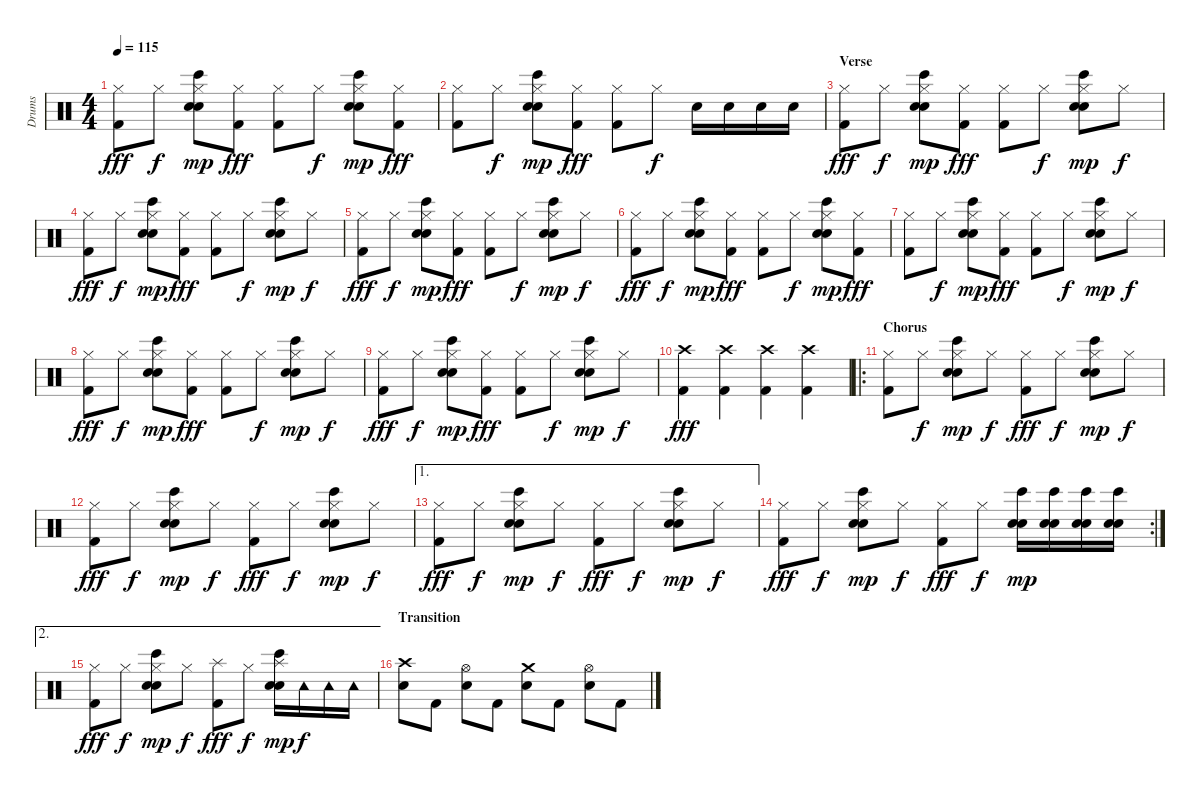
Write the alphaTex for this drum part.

\track ("Drums" "Drums") {instrument percussion}
\staff {score}
\articulation defaults
\ts (4 4)
\tempo 115
\clef neutral
\ks c
("Hi-Hat (closed)" "Kick (hit) 2").8{dy fff} "Hi-Hat (closed)".8{dy f} ("Hi-Hat (closed)" "Bongo High (hit)" "Electric Snare (hit)" "Hand Clap (hit)").8{dy mp} ("Hi-Hat (closed)" "Kick (hit) 2").8{dy fff} ("Hi-Hat (closed)" "Kick (hit) 2").8 "Hi-Hat (closed)".8{dy f} ("Hi-Hat (closed)" "Bongo High (hit)" "Electric Snare (hit)" "Hand Clap (hit)").8{dy mp} ("Hi-Hat (closed)" "Kick (hit) 2").8{dy fff} |
("Hi-Hat (closed)" "Kick (hit) 2").8 "Hi-Hat (closed)".8{dy f} ("Hi-Hat (closed)" "Bongo High (hit)" "Electric Snare (hit)" "Hand Clap (hit)").8{dy mp} ("Hi-Hat (closed)" "Kick (hit) 2").8{dy fff} ("Hi-Hat (closed)" "Kick (hit) 2").8 "Hi-Hat (closed)".8{dy f} "Electric Snare (hit)".16 "Electric Snare (hit)".16 "Electric Snare (hit)".16 "Electric Snare (hit)".16 |
\section ("" "Verse")
("Hi-Hat (closed)" "Kick (hit) 2").8{dy fff} "Hi-Hat (closed)".8{dy f} ("Hi-Hat (closed)" "Bongo High (hit)" "Electric Snare (hit)" "Hand Clap (hit)").8{dy mp} ("Hi-Hat (closed)" "Kick (hit) 2").8{dy fff} ("Hi-Hat (closed)" "Kick (hit) 2").8 "Hi-Hat (closed)".8{dy f} ("Hi-Hat (closed)" "Bongo High (hit)" "Electric Snare (hit)" "Hand Clap (hit)").8{dy mp} "Hi-Hat (closed)".8{dy f} |
("Hi-Hat (closed)" "Kick (hit) 2").8{dy fff} "Hi-Hat (closed)".8{dy f} ("Hi-Hat (closed)" "Bongo High (hit)" "Electric Snare (hit)" "Hand Clap (hit)").8{dy mp} ("Hi-Hat (closed)" "Kick (hit) 2").8{dy fff} ("Hi-Hat (closed)" "Kick (hit) 2").8 "Hi-Hat (closed)".8{dy f} ("Hi-Hat (closed)" "Bongo High (hit)" "Electric Snare (hit)" "Hand Clap (hit)").8{dy mp} "Hi-Hat (closed)".8{dy f} |
("Hi-Hat (closed)" "Kick (hit) 2").8{dy fff} "Hi-Hat (closed)".8{dy f} ("Hi-Hat (closed)" "Bongo High (hit)" "Electric Snare (hit)" "Hand Clap (hit)").8{dy mp} ("Hi-Hat (closed)" "Kick (hit) 2").8{dy fff} ("Hi-Hat (closed)" "Kick (hit) 2").8 "Hi-Hat (closed)".8{dy f} ("Hi-Hat (closed)" "Bongo High (hit)" "Electric Snare (hit)" "Hand Clap (hit)").8{dy mp} "Hi-Hat (closed)".8{dy f} |
("Hi-Hat (closed)" "Kick (hit) 2").8{dy fff} "Hi-Hat (closed)".8{dy f} ("Hi-Hat (closed)" "Bongo High (hit)" "Electric Snare (hit)" "Hand Clap (hit)").8{dy mp} ("Hi-Hat (closed)" "Kick (hit) 2").8{dy fff} ("Hi-Hat (closed)" "Kick (hit) 2").8 "Hi-Hat (closed)".8{dy f} ("Hi-Hat (closed)" "Bongo High (hit)" "Electric Snare (hit)" "Hand Clap (hit)").8{dy mp} ("Hi-Hat (closed)" "Kick (hit) 2").8{dy fff} |
("Hi-Hat (closed)" "Kick (hit) 2").8 "Hi-Hat (closed)".8{dy f} ("Hi-Hat (closed)" "Bongo High (hit)" "Electric Snare (hit)" "Hand Clap (hit)").8{dy mp} ("Hi-Hat (closed)" "Kick (hit) 2").8{dy fff} ("Hi-Hat (closed)" "Kick (hit) 2").8 "Hi-Hat (closed)".8{dy f} ("Hi-Hat (closed)" "Bongo High (hit)" "Electric Snare (hit)" "Hand Clap (hit)").8{dy mp} "Hi-Hat (closed)".8{dy f} |
("Hi-Hat (closed)" "Kick (hit) 2").8{dy fff} "Hi-Hat (closed)".8{dy f} ("Hi-Hat (closed)" "Bongo High (hit)" "Electric Snare (hit)" "Hand Clap (hit)").8{dy mp} ("Hi-Hat (closed)" "Kick (hit) 2").8{dy fff} ("Hi-Hat (closed)" "Kick (hit) 2").8 "Hi-Hat (closed)".8{dy f} ("Hi-Hat (closed)" "Bongo High (hit)" "Electric Snare (hit)" "Hand Clap (hit)").8{dy mp} "Hi-Hat (closed)".8{dy f} |
("Hi-Hat (closed)" "Kick (hit) 2").8{dy fff} "Hi-Hat (closed)".8{dy f} ("Hi-Hat (closed)" "Bongo High (hit)" "Electric Snare (hit)" "Hand Clap (hit)").8{dy mp} ("Hi-Hat (closed)" "Kick (hit) 2").8{dy fff} ("Hi-Hat (closed)" "Kick (hit) 2").8 "Hi-Hat (closed)".8{dy f} ("Hi-Hat (closed)" "Bongo High (hit)" "Electric Snare (hit)" "Hand Clap (hit)").8{dy mp} "Hi-Hat (closed)".8{dy f} |
("Crash high (hit)" "Kick (hit) 2").4{dy fff} ("Crash high (hit)" "Kick (hit) 2").4 ("Crash high (hit)" "Kick (hit) 2").4 ("Crash high (hit)" "Kick (hit) 2").4 |
\ro
\section ("" "Chorus")
("Hi-Hat (closed)" "Kick (hit) 2").8 "Hi-Hat (closed)".8{dy f} ("Hi-Hat (closed)" "Bongo High (hit)" "Electric Snare (hit)" "Hand Clap (hit)").8{dy mp} "Hi-Hat (closed)".8{dy f} ("Hi-Hat (closed)" "Kick (hit) 2").8{dy fff} "Hi-Hat (closed)".8{dy f} ("Hi-Hat (closed)" "Bongo High (hit)" "Electric Snare (hit)" "Hand Clap (hit)").8{dy mp} "Hi-Hat (closed)".8{dy f} |
("Hi-Hat (closed)" "Kick (hit) 2").8{dy fff} "Hi-Hat (closed)".8{dy f} ("Hi-Hat (closed)" "Bongo High (hit)" "Electric Snare (hit)" "Hand Clap (hit)").8{dy mp} "Hi-Hat (closed)".8{dy f} ("Hi-Hat (closed)" "Kick (hit) 2").8{dy fff} "Hi-Hat (closed)".8{dy f} ("Hi-Hat (closed)" "Bongo High (hit)" "Electric Snare (hit)" "Hand Clap (hit)").8{dy mp} "Hi-Hat (closed)".8{dy f} |
\ae 1
("Hi-Hat (closed)" "Kick (hit) 2").8{dy fff} "Hi-Hat (closed)".8{dy f} ("Hi-Hat (closed)" "Bongo High (hit)" "Electric Snare (hit)" "Hand Clap (hit)").8{dy mp} "Hi-Hat (closed)".8{dy f} ("Hi-Hat (closed)" "Kick (hit) 2").8{dy fff} "Hi-Hat (closed)".8{dy f} ("Hi-Hat (closed)" "Bongo High (hit)" "Electric Snare (hit)" "Hand Clap (hit)").8{dy mp} "Hi-Hat (closed)".8{dy f} |
\rc 2
("Hi-Hat (closed)" "Kick (hit) 2").8{dy fff} "Hi-Hat (closed)".8{dy f} ("Hi-Hat (closed)" "Bongo High (hit)" "Electric Snare (hit)" "Hand Clap (hit)").8{dy mp} "Hi-Hat (closed)".8{dy f} ("Hi-Hat (closed)" "Kick (hit) 2").8{dy fff} "Hi-Hat (closed)".8{dy f} ("Bongo High (hit)" "Electric Snare (hit)" "Hand Clap (hit)").16{dy mp} ("Bongo High (hit)" "Electric Snare (hit)" "Hand Clap (hit)").16 ("Bongo High (hit)" "Electric Snare (hit)" "Hand Clap (hit)").16 ("Bongo High (hit)" "Electric Snare (hit)" "Hand Clap (hit)").16 |
\ae 2
("Hi-Hat (closed)" "Kick (hit) 2").8{dy fff} "Hi-Hat (closed)".8{dy f} ("Hi-Hat (closed)" "Bongo High (hit)" "Electric Snare (hit)" "Hand Clap (hit)").8{dy mp} "Hi-Hat (closed)".8{dy f} ("Splash (hit)" "Kick (hit) 2").8{dy fff} "Hi-Hat (closed)".8{dy f} ("Splash (hit)" "Bongo High (hit)" "Electric Snare (hit)" "Hand Clap (hit)").16{dy mp} "Tambourine (hit)".16{dy f} "Tambourine (hit)".16 "Tambourine (hit)".16 |
\section ("" "Transition")
("Crash high (hit)" "Electric Snare (hit)").8 "Kick (hit) 2".8 ("Hi-Hat (open)" "Electric Snare (hit)").8 "Kick (hit) 2".8 ("Crash medium (hit)" "Electric Snare (hit)").8 "Kick (hit) 2".8 ("Hi-Hat (open)" "Electric Snare (hit)").8 "Kick (hit) 2".8
